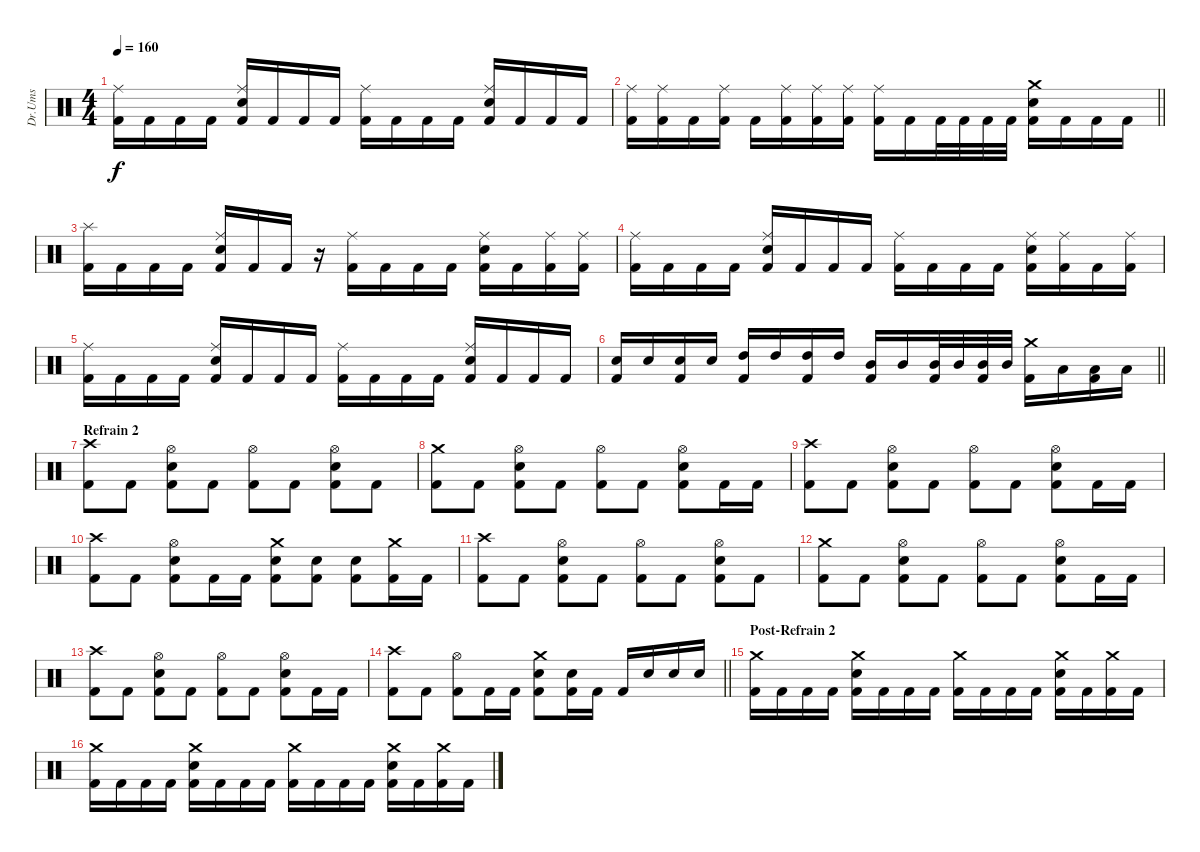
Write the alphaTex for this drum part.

\track ("Dr.Ums" "Dr.Ums") {instrument percussion}
\staff {score}
\articulation defaults
\ts (4 4)
\tempo 160
\clef neutral
\ks c
("Kick (hit) 2" "Ride (middle)").16{dy f} "Kick (hit) 2".16 "Kick (hit) 2".16 "Kick (hit) 2".16 ("Kick (hit) 2" "Ride (middle)" "Snare (hit) 2").16 "Kick (hit) 2".16 "Kick (hit) 2".16 "Kick (hit) 2".16 ("Kick (hit) 2" "Ride (middle)").16 "Kick (hit) 2".16 "Kick (hit) 2".16 "Kick (hit) 2".16 ("Kick (hit) 2" "Ride (middle)" "Snare (hit) 2").16 "Kick (hit) 2".16 "Kick (hit) 2".16 "Kick (hit) 2".16 |
\barLineRight lightlight
("Kick (hit) 2" "Ride (middle)").16 ("Kick (hit) 2" "Ride (middle)").16 "Kick (hit) 2".16 ("Kick (hit) 2" "Ride (middle)").16 "Kick (hit) 2".16 ("Kick (hit) 2" "Ride (middle)").16 ("Kick (hit) 2" "Ride (middle)").16 ("Kick (hit) 2" "Ride (middle)").16 ("Kick (hit) 2" "Ride (middle)").16 "Kick (hit) 2".16 "Kick (hit) 2".32 "Kick (hit) 2".32 "Kick (hit) 2".32 "Kick (hit) 2".32 ("Kick (hit) 2" "Crash medium (hit)" "Snare (hit) 2").16 "Kick (hit) 2".16 "Kick (hit) 2".16 "Kick (hit) 2".16 |
("Kick (hit) 2" "Splash (hit)").16 "Kick (hit) 2".16 "Kick (hit) 2".16 "Kick (hit) 2".16 ("Kick (hit) 2" "Ride (middle)" "Snare (hit) 2").16 "Kick (hit) 2".16 "Kick (hit) 2".16 r.16 ("Kick (hit) 2" "Ride (middle)").16 "Kick (hit) 2".16 "Kick (hit) 2".16 "Kick (hit) 2".16 ("Kick (hit) 2" "Ride (middle)" "Snare (hit) 2").16 "Kick (hit) 2".16 ("Kick (hit) 2" "Ride (middle)").16 ("Kick (hit) 2" "Ride (middle)").16 |
("Kick (hit) 2" "Ride (middle)").16 "Kick (hit) 2".16 "Kick (hit) 2".16 "Kick (hit) 2".16 ("Kick (hit) 2" "Ride (middle)" "Snare (hit) 2").16 "Kick (hit) 2".16 "Kick (hit) 2".16 "Kick (hit) 2".16 ("Kick (hit) 2" "Ride (middle)").16 "Kick (hit) 2".16 "Kick (hit) 2".16 "Kick (hit) 2".16 ("Kick (hit) 2" "Ride (middle)" "Snare (hit) 2").16 ("Kick (hit) 2" "Ride (middle)").16 "Kick (hit) 2".16 ("Kick (hit) 2" "Ride (middle)").16 |
("Kick (hit) 2" "Ride (middle)").16 "Kick (hit) 2".16 "Kick (hit) 2".16 "Kick (hit) 2".16 ("Kick (hit) 2" "Ride (middle)" "Snare (hit) 2").16 "Kick (hit) 2".16 "Kick (hit) 2".16 "Kick (hit) 2".16 ("Kick (hit) 2" "Ride (middle)").16 "Kick (hit) 2".16 "Kick (hit) 2".16 "Kick (hit) 2".16 ("Kick (hit) 2" "Ride (middle)" "Snare (hit) 2").16 "Kick (hit) 2".16 "Kick (hit) 2".16 "Kick (hit) 2".16 |
\barLineRight lightlight
("Snare (hit) 2" "Kick (hit) 2").16 "Snare (hit) 2".16 ("Snare (hit) 2" "Kick (hit) 2").16 "Snare (hit) 2".16 ("High Tom (hit)" "Kick (hit) 2").16 "High Tom (hit)".16 ("High Tom (hit)" "Kick (hit) 2").16 "High Tom (hit)".16 ("Mid Tom (hit)" "Kick (hit) 2").16 "Mid Tom (hit)".16 ("Mid Tom (hit)" "Kick (hit) 2").32 "Mid Tom (hit)".32 ("Mid Tom (hit)" "Kick (hit) 2").32 "Mid Tom (hit)".32 ("Crash medium (hit)" "Kick (hit) 2").16 "Low Tom (hit)".16 ("Low Tom (hit)" "Kick (hit) 2").16 "Low Tom (hit)".16 |
\section ("" "Refrain 2")
("Crash high (hit)" "Kick (hit) 2").8 "Kick (hit) 2".8 ("Snare (hit) 2" "Kick (hit) 2" "Hi-Hat (open)").8 "Kick (hit) 2".8 ("Kick (hit) 2" "Hi-Hat (open)").8 "Kick (hit) 2".8 ("Kick (hit) 2" "Snare (hit) 2" "Hi-Hat (open)").8 "Kick (hit) 2".8 |
("Crash medium (hit)" "Kick (hit) 2").8 "Kick (hit) 2".8 ("Snare (hit) 2" "Kick (hit) 2" "Hi-Hat (open)").8 "Kick (hit) 2".8 ("Kick (hit) 2" "Hi-Hat (open)").8 "Kick (hit) 2".8 ("Kick (hit) 2" "Snare (hit) 2" "Hi-Hat (open)").8 "Kick (hit) 2".16 "Kick (hit) 2".16 |
("Crash high (hit)" "Kick (hit) 2").8 "Kick (hit) 2".8 ("Snare (hit) 2" "Kick (hit) 2" "Hi-Hat (open)").8 "Kick (hit) 2".8 ("Kick (hit) 2" "Hi-Hat (open)").8 "Kick (hit) 2".8 ("Kick (hit) 2" "Snare (hit) 2" "Hi-Hat (open)").8 "Kick (hit) 2".16 "Kick (hit) 2".16 |
("Crash high (hit)" "Kick (hit) 2").8 "Kick (hit) 2".8 ("Hi-Hat (open)" "Kick (hit) 2" "Snare (hit) 2").8 "Kick (hit) 2".16 "Kick (hit) 2".16 ("Snare (hit) 2" "Kick (hit) 2" "Crash medium (hit)").8 ("Snare (hit) 2" "Kick (hit) 2").8 ("Kick (hit) 2" "Snare (hit) 2").8 ("Kick (hit) 2" "Crash medium (hit)").16 "Kick (hit) 2".16 |
("Crash high (hit)" "Kick (hit) 2").8 "Kick (hit) 2".8 ("Snare (hit) 2" "Kick (hit) 2" "Hi-Hat (open)").8 "Kick (hit) 2".8 ("Kick (hit) 2" "Hi-Hat (open)").8 "Kick (hit) 2".8 ("Kick (hit) 2" "Snare (hit) 2" "Hi-Hat (open)").8 "Kick (hit) 2".8 |
("Crash medium (hit)" "Kick (hit) 2").8 "Kick (hit) 2".8 ("Snare (hit) 2" "Kick (hit) 2" "Hi-Hat (open)").8 "Kick (hit) 2".8 ("Kick (hit) 2" "Hi-Hat (open)").8 "Kick (hit) 2".8 ("Kick (hit) 2" "Snare (hit) 2" "Hi-Hat (open)").8 "Kick (hit) 2".16 "Kick (hit) 2".16 |
("Crash high (hit)" "Kick (hit) 2").8 "Kick (hit) 2".8 ("Snare (hit) 2" "Kick (hit) 2" "Hi-Hat (open)").8 "Kick (hit) 2".8 ("Kick (hit) 2" "Hi-Hat (open)").8 "Kick (hit) 2".8 ("Kick (hit) 2" "Snare (hit) 2" "Hi-Hat (open)").8 "Kick (hit) 2".16 "Kick (hit) 2".16 |
\barLineRight lightlight
("Crash high (hit)" "Kick (hit) 2").8 "Kick (hit) 2".8 ("Hi-Hat (open)" "Kick (hit) 2").8 "Kick (hit) 2".16 "Kick (hit) 2".16 ("Snare (hit) 2" "Kick (hit) 2" "Crash medium (hit)").8 ("Snare (hit) 2" "Kick (hit) 2").16 "Kick (hit) 2".16 "Kick (hit) 2".16 "Snare (hit) 2".16 "Snare (hit) 2".16 "Snare (hit) 2".16 |
\section ("" "Post-Refrain 2")
("Kick (hit) 2" "Crash medium (hit)").16 "Kick (hit) 2".16 "Kick (hit) 2".16 "Kick (hit) 2".16 ("Snare (hit) 2" "Crash medium (hit)" "Kick (hit) 2").16 "Kick (hit) 2".16 "Kick (hit) 2".16 "Kick (hit) 2".16 ("Kick (hit) 2" "Crash medium (hit)").16 "Kick (hit) 2".16 "Kick (hit) 2".16 "Kick (hit) 2".16 ("Snare (hit) 2" "Crash medium (hit)" "Kick (hit) 2").16 "Kick (hit) 2".16 ("Kick (hit) 2" "Crash medium (hit)").16 "Kick (hit) 2".16 |
("Kick (hit) 2" "Crash medium (hit)").16 "Kick (hit) 2".16 "Kick (hit) 2".16 "Kick (hit) 2".16 ("Snare (hit) 2" "Crash medium (hit)" "Kick (hit) 2").16 "Kick (hit) 2".16 "Kick (hit) 2".16 "Kick (hit) 2".16 ("Kick (hit) 2" "Crash medium (hit)").16 "Kick (hit) 2".16 "Kick (hit) 2".16 "Kick (hit) 2".16 ("Snare (hit) 2" "Crash medium (hit)" "Kick (hit) 2").16 "Kick (hit) 2".16 ("Kick (hit) 2" "Crash medium (hit)").16 "Kick (hit) 2".16
